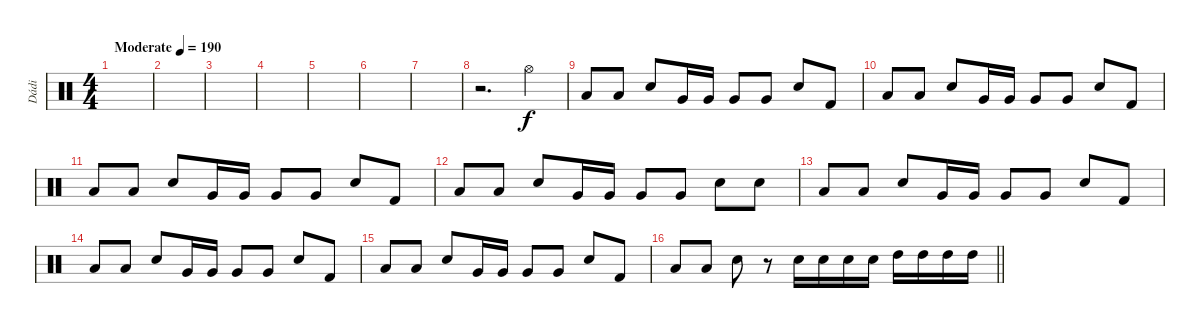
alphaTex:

\track ("Dádi" "Dádi") {instrument percussion}
\staff {score}
\articulation defaults
\ts (4 4)
\tempo (190 "Moderate")
\clef neutral
\ks c
|
|
|
|
|
|
|
r.2{d} "Hi-Hat (open)".4 |
"Low Floor Tom (hit)".8 "Low Floor Tom (hit)".8 "Electric Snare (hit)".8 "Very Low Tom (hit)".16 "Very Low Tom (hit)".16 "Very Low Tom (hit)".8 "Very Low Tom (hit)".8 "Electric Snare (hit)".8 "Kick (hit) 2".8 |
"Low Floor Tom (hit)".8 "Low Floor Tom (hit)".8 "Electric Snare (hit)".8 "Very Low Tom (hit)".16 "Very Low Tom (hit)".16 "Very Low Tom (hit)".8 "Very Low Tom (hit)".8 "Electric Snare (hit)".8 "Kick (hit) 2".8 |
"Low Floor Tom (hit)".8 "Low Floor Tom (hit)".8 "Electric Snare (hit)".8 "Very Low Tom (hit)".16 "Very Low Tom (hit)".16 "Very Low Tom (hit)".8 "Very Low Tom (hit)".8 "Electric Snare (hit)".8 "Kick (hit) 2".8 |
"Low Floor Tom (hit)".8 "Low Floor Tom (hit)".8 "Electric Snare (hit)".8 "Very Low Tom (hit)".16 "Very Low Tom (hit)".16 "Very Low Tom (hit)".8 "Very Low Tom (hit)".8 "Electric Snare (hit)".8 "Electric Snare (hit)".8 |
"Low Floor Tom (hit)".8 "Low Floor Tom (hit)".8 "Electric Snare (hit)".8 "Very Low Tom (hit)".16 "Very Low Tom (hit)".16 "Very Low Tom (hit)".8 "Very Low Tom (hit)".8 "Electric Snare (hit)".8 "Kick (hit) 2".8 |
"Low Floor Tom (hit)".8 "Low Floor Tom (hit)".8 "Electric Snare (hit)".8 "Very Low Tom (hit)".16 "Very Low Tom (hit)".16 "Very Low Tom (hit)".8 "Very Low Tom (hit)".8 "Electric Snare (hit)".8 "Kick (hit) 2".8 |
"Low Floor Tom (hit)".8 "Low Floor Tom (hit)".8 "Electric Snare (hit)".8 "Very Low Tom (hit)".16 "Very Low Tom (hit)".16 "Very Low Tom (hit)".8 "Very Low Tom (hit)".8 "Electric Snare (hit)".8 "Kick (hit) 2".8 |
\barLineRight lightlight "Low Floor Tom (hit)".8 "Low Floor Tom (hit)".8 "Electric Snare (hit)".8
r.8 "Electric Snare (hit)".16 "Electric Snare (hit)".16 "Electric Snare (hit)".16 "Electric Snare (hit)".16 "High Tom (hit)".16 "High Tom (hit)".16 "High Tom (hit)".16 "High Tom (hit)".16
